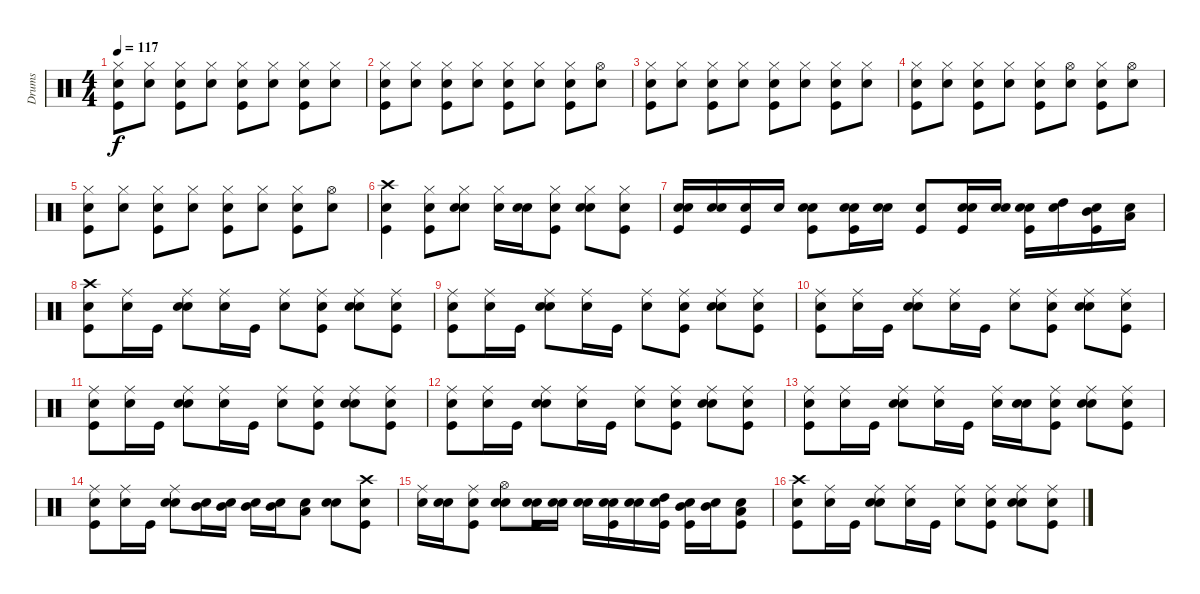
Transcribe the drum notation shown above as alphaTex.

\track ("Drums" "Drums") {instrument percussion}
\staff {score}
\articulation defaults
\ts (4 4)
\tempo 117
\clef neutral
\ks c
("Snare (hit)" "Kick (hit)" "Hi-Hat (closed)").8{dy f} ("Snare (hit)" "Hi-Hat (closed)").8 ("Snare (hit)" "Kick (hit)" "Hi-Hat (closed)").8 ("Snare (hit)" "Hi-Hat (closed)").8 ("Snare (hit)" "Kick (hit)" "Hi-Hat (closed)").8 ("Snare (hit)" "Hi-Hat (closed)").8 ("Snare (hit)" "Kick (hit)" "Hi-Hat (closed)").8 ("Snare (hit)" "Hi-Hat (closed)").8 |
("Snare (hit)" "Kick (hit)" "Hi-Hat (closed)").8 ("Snare (hit)" "Hi-Hat (closed)").8 ("Snare (hit)" "Kick (hit)" "Hi-Hat (closed)").8 ("Snare (hit)" "Hi-Hat (closed)").8 ("Snare (hit)" "Kick (hit)" "Hi-Hat (closed)").8 ("Snare (hit)" "Hi-Hat (closed)").8 ("Snare (hit)" "Kick (hit)" "Hi-Hat (closed)").8 ("Snare (hit)" "Hi-Hat (open)").8 |
("Snare (hit)" "Kick (hit)" "Hi-Hat (closed)").8 ("Snare (hit)" "Hi-Hat (closed)").8 ("Snare (hit)" "Kick (hit)" "Hi-Hat (closed)").8 ("Snare (hit)" "Hi-Hat (closed)").8 ("Snare (hit)" "Kick (hit)" "Hi-Hat (closed)").8 ("Snare (hit)" "Hi-Hat (closed)").8 ("Snare (hit)" "Kick (hit)" "Hi-Hat (closed)").8 ("Snare (hit)" "Hi-Hat (closed)").8 |
("Snare (hit)" "Kick (hit)" "Hi-Hat (closed)").8 ("Snare (hit)" "Hi-Hat (closed)").8 ("Snare (hit)" "Kick (hit)" "Hi-Hat (closed)").8 ("Snare (hit)" "Hi-Hat (closed)").8 ("Snare (hit)" "Kick (hit)" "Hi-Hat (closed)").8 ("Snare (hit)" "Hi-Hat (open)").8 ("Snare (hit)" "Kick (hit)" "Hi-Hat (closed)").8 ("Snare (hit)" "Hi-Hat (open)").8 |
("Snare (hit)" "Kick (hit)" "Hi-Hat (closed)").8 ("Snare (hit)" "Hi-Hat (closed)").8 ("Snare (hit)" "Kick (hit)" "Hi-Hat (closed)").8 ("Snare (hit)" "Hi-Hat (closed)").8 ("Snare (hit)" "Kick (hit)" "Hi-Hat (closed)").8 ("Snare (hit)" "Hi-Hat (closed)").8 ("Snare (hit)" "Kick (hit)" "Hi-Hat (closed)").8 ("Snare (hit)" "Hi-Hat (open)").8 |
("Snare (hit)" "Kick (hit)" "Crash high (hit)").4 ("Snare (hit)" "Kick (hit)" "Hi-Hat (closed)").8 ("Snare (hit)" "Electric Snare (hit)" "Hi-Hat (closed)").8 ("Snare (hit)" "Hi-Hat (closed)").16 ("Snare (hit)" "Electric Snare (hit)").16 ("Snare (hit)" "Kick (hit)" "Hi-Hat (closed)").8 ("Snare (hit)" "Electric Snare (hit)" "Hi-Hat (closed)").8 ("Snare (hit)" "Kick (hit)" "Hi-Hat (closed)").8 |
("Snare (hit)" "Kick (hit)" "Electric Snare (hit)").16 ("Snare (hit)" "Electric Snare (hit)").16 ("Snare (hit)" "Kick (hit)").16 "Electric Snare (hit)".16 ("Snare (hit)" "Kick (hit)" "Electric Snare (hit)").8 ("Snare (hit)" "Kick (hit)" "Electric Snare (hit)").16 ("Snare (hit)" "Electric Snare (hit)").16 ("Snare (hit)" "Kick (hit)").8 ("Snare (hit)" "Kick (hit)" "Electric Snare (hit)").16 ("Snare (hit)" "Electric Snare (hit)").16 ("Snare (hit)" "Kick (hit)" "Electric Snare (hit)").16 ("Snare (hit)" "High Tom (hit)").16 ("Snare (hit)" "Kick (hit)" "Mid Tom (hit)").16 ("Snare (hit)" "Low Tom (hit)").16 |
("Snare (hit)" "Kick (hit)" "Crash high (hit)").8 ("Snare (hit)" "Ride (middle)").16 "Kick (hit)".16 ("Snare (hit)" "Electric Snare (hit)" "Ride (middle)").8 ("Snare (hit)" "Ride (middle)").16 "Kick (hit)".16 ("Snare (hit)" "Ride (middle)").8 ("Snare (hit)" "Kick (hit)" "Ride (middle)").8 ("Snare (hit)" "Electric Snare (hit)" "Ride (middle)").8 ("Snare (hit)" "Kick (hit)" "Ride (middle)").8 |
("Snare (hit)" "Kick (hit)" "Ride (middle)").8 ("Snare (hit)" "Ride (middle)").16 "Kick (hit)".16 ("Snare (hit)" "Electric Snare (hit)" "Ride (middle)").8 ("Snare (hit)" "Ride (middle)").16 "Kick (hit)".16 ("Snare (hit)" "Ride (middle)").8 ("Snare (hit)" "Kick (hit)" "Ride (middle)").8 ("Snare (hit)" "Electric Snare (hit)" "Ride (middle)").8 ("Snare (hit)" "Kick (hit)" "Ride (middle)").8 |
("Snare (hit)" "Kick (hit)" "Ride (middle)").8 ("Snare (hit)" "Ride (middle)").16 "Kick (hit)".16 ("Snare (hit)" "Electric Snare (hit)" "Ride (middle)").8 ("Snare (hit)" "Ride (middle)").16 "Kick (hit)".16 ("Snare (hit)" "Ride (middle)").8 ("Snare (hit)" "Kick (hit)" "Ride (middle)").8 ("Snare (hit)" "Electric Snare (hit)" "Ride (middle)").8 ("Snare (hit)" "Kick (hit)" "Ride (middle)").8 |
("Snare (hit)" "Kick (hit)" "Ride (middle)").8 ("Snare (hit)" "Ride (middle)").16 "Kick (hit)".16 ("Snare (hit)" "Electric Snare (hit)" "Ride (middle)").8 ("Snare (hit)" "Ride (middle)").16 "Kick (hit)".16 ("Snare (hit)" "Ride (middle)").8 ("Snare (hit)" "Kick (hit)" "Ride (middle)").8 ("Snare (hit)" "Electric Snare (hit)" "Ride (middle)").8 ("Snare (hit)" "Kick (hit)" "Ride (middle)").8 |
("Snare (hit)" "Kick (hit)" "Ride (middle)").8 ("Snare (hit)" "Ride (middle)").16 "Kick (hit)".16 ("Snare (hit)" "Electric Snare (hit)" "Ride (middle)").8 ("Snare (hit)" "Ride (middle)").16 "Kick (hit)".16 ("Snare (hit)" "Ride (middle)").8 ("Snare (hit)" "Kick (hit)" "Ride (middle)").8 ("Snare (hit)" "Electric Snare (hit)" "Ride (middle)").8 ("Snare (hit)" "Kick (hit)" "Ride (middle)").8 |
("Snare (hit)" "Kick (hit)" "Ride (middle)").8 ("Snare (hit)" "Ride (middle)").16 "Kick (hit)".16 ("Snare (hit)" "Electric Snare (hit)" "Ride (middle)").8 ("Snare (hit)" "Ride (middle)").16 "Kick (hit)".16 ("Snare (hit)" "Ride (middle)").16 ("Snare (hit)" "Electric Snare (hit)").16 ("Snare (hit)" "Kick (hit)" "Ride (middle)").8 ("Snare (hit)" "Electric Snare (hit)" "Ride (middle)").8 ("Snare (hit)" "Kick (hit)" "Ride (middle)").8 |
("Snare (hit)" "Kick (hit)" "Ride (middle)").8 ("Snare (hit)" "Ride (middle)").16 "Kick (hit)".16 ("Snare (hit)" "Electric Snare (hit)" "Ride (middle)").8 ("Snare (hit)" "Mid Tom (hit)").16 ("Snare (hit)" "Mid Tom (hit)").16 ("Snare (hit)" "Mid Tom (hit)").16 ("Snare (hit)" "Mid Tom (hit)").16 ("Snare (hit)" "Low Tom (hit)").8 ("Snare (hit)" "Electric Snare (hit)").8 ("Snare (hit)" "Kick (hit)" "Crash high (hit)").8 |
("Snare (hit)" "Ride (middle)").16 ("Snare (hit)" "Electric Snare (hit)").16 ("Snare (hit)" "Kick (hit)" "Ride (middle)").8 ("Snare (hit)" "Electric Snare (hit)" "Hi-Hat (open)").8 ("Snare (hit)" "Kick (hit)" "Electric Snare (hit)").16 ("Snare (hit)" "Electric Snare (hit)").16 ("Snare (hit)" "Electric Snare (hit)").16 ("Snare (hit)" "Kick (hit)" "Electric Snare (hit)").16 ("Snare (hit)" "Electric Snare (hit)").16 ("Snare (hit)" "Kick (hit)" "High Tom (hit)").16 ("Snare (hit)" "Kick (hit)" "Mid Tom (hit)").16 ("Snare (hit)" "Mid Tom (hit)").16 ("Snare (hit)" "Kick (hit)" "Low Tom (hit)").8 |
("Snare (hit)" "Kick (hit)" "Crash high (hit)").8 ("Snare (hit)" "Ride (middle)").16 "Kick (hit)".16 ("Snare (hit)" "Electric Snare (hit)" "Ride (middle)").8 ("Snare (hit)" "Ride (middle)").16 "Kick (hit)".16 ("Snare (hit)" "Ride (middle)").8 ("Snare (hit)" "Kick (hit)" "Ride (middle)").8 ("Snare (hit)" "Electric Snare (hit)" "Ride (middle)").8 ("Snare (hit)" "Kick (hit)" "Ride (middle)").8
